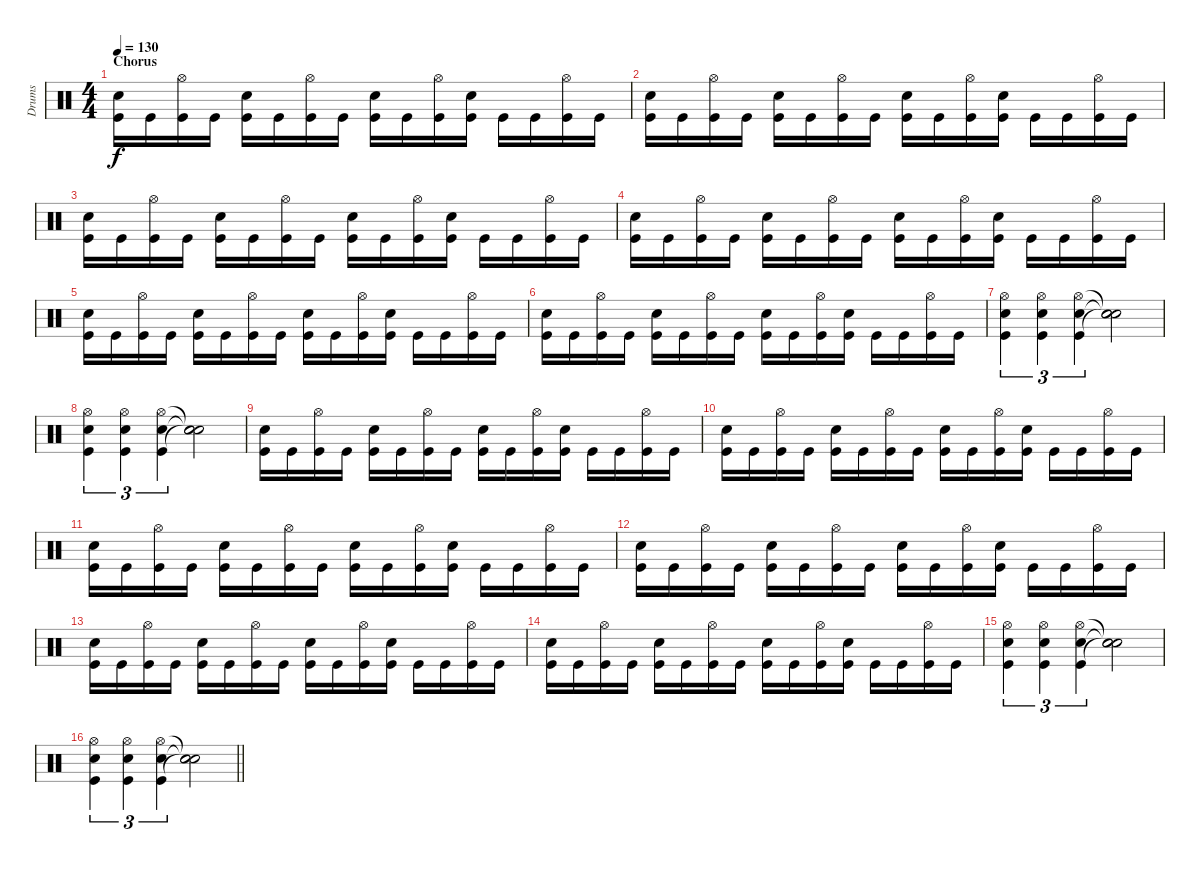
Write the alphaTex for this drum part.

\track ("Drums" "Drums") {instrument percussion}
\staff {score}
\articulation defaults
\ts (4 4)
\section ("" "Chorus")
\tempo 130
\clef neutral
\ks c
("Snare (hit) 2" "Kick (hit)").16{dy f} "Kick (hit)".16 ("Hi-Hat (open)" "Kick (hit)").16 "Kick (hit)".16 ("Snare (hit) 2" "Kick (hit)").16 "Kick (hit)".16 ("Hi-Hat (open)" "Kick (hit)").16 "Kick (hit)".16 ("Snare (hit) 2" "Kick (hit)").16 "Kick (hit)".16 ("Hi-Hat (open)" "Kick (hit)").16 ("Snare (hit) 2" "Kick (hit)").16 "Kick (hit)".16 "Kick (hit)".16 ("Hi-Hat (open)" "Kick (hit)").16 "Kick (hit)".16 |
("Snare (hit) 2" "Kick (hit)").16 "Kick (hit)".16 ("Hi-Hat (open)" "Kick (hit)").16 "Kick (hit)".16 ("Snare (hit) 2" "Kick (hit)").16 "Kick (hit)".16 ("Hi-Hat (open)" "Kick (hit)").16 "Kick (hit)".16 ("Snare (hit) 2" "Kick (hit)").16 "Kick (hit)".16 ("Hi-Hat (open)" "Kick (hit)").16 ("Snare (hit) 2" "Kick (hit)").16 "Kick (hit)".16 "Kick (hit)".16 ("Hi-Hat (open)" "Kick (hit)").16 "Kick (hit)".16 |
("Snare (hit) 2" "Kick (hit)").16 "Kick (hit)".16 ("Hi-Hat (open)" "Kick (hit)").16 "Kick (hit)".16 ("Snare (hit) 2" "Kick (hit)").16 "Kick (hit)".16 ("Hi-Hat (open)" "Kick (hit)").16 "Kick (hit)".16 ("Snare (hit) 2" "Kick (hit)").16 "Kick (hit)".16 ("Hi-Hat (open)" "Kick (hit)").16 ("Snare (hit) 2" "Kick (hit)").16 "Kick (hit)".16 "Kick (hit)".16 ("Hi-Hat (open)" "Kick (hit)").16 "Kick (hit)".16 |
("Snare (hit) 2" "Kick (hit)").16 "Kick (hit)".16 ("Hi-Hat (open)" "Kick (hit)").16 "Kick (hit)".16 ("Snare (hit) 2" "Kick (hit)").16 "Kick (hit)".16 ("Hi-Hat (open)" "Kick (hit)").16 "Kick (hit)".16 ("Snare (hit) 2" "Kick (hit)").16 "Kick (hit)".16 ("Hi-Hat (open)" "Kick (hit)").16 ("Snare (hit) 2" "Kick (hit)").16 "Kick (hit)".16 "Kick (hit)".16 ("Hi-Hat (open)" "Kick (hit)").16 "Kick (hit)".16 |
("Snare (hit) 2" "Kick (hit)").16 "Kick (hit)".16 ("Hi-Hat (open)" "Kick (hit)").16 "Kick (hit)".16 ("Snare (hit) 2" "Kick (hit)").16 "Kick (hit)".16 ("Hi-Hat (open)" "Kick (hit)").16 "Kick (hit)".16 ("Snare (hit) 2" "Kick (hit)").16 "Kick (hit)".16 ("Hi-Hat (open)" "Kick (hit)").16 ("Snare (hit) 2" "Kick (hit)").16 "Kick (hit)".16 "Kick (hit)".16 ("Hi-Hat (open)" "Kick (hit)").16 "Kick (hit)".16 |
("Snare (hit) 2" "Kick (hit)").16 "Kick (hit)".16 ("Hi-Hat (open)" "Kick (hit)").16 "Kick (hit)".16 ("Snare (hit) 2" "Kick (hit)").16 "Kick (hit)".16 ("Hi-Hat (open)" "Kick (hit)").16 "Kick (hit)".16 ("Snare (hit) 2" "Kick (hit)").16 "Kick (hit)".16 ("Hi-Hat (open)" "Kick (hit)").16 ("Snare (hit) 2" "Kick (hit)").16 "Kick (hit)".16 "Kick (hit)".16 ("Hi-Hat (open)" "Kick (hit)").16 "Kick (hit)".16 |
("Hi-Hat (open)" "Snare (hit) 2" "Kick (hit)").4{tu (3 2)} ("Hi-Hat (open)" "Snare (hit) 2" "Kick (hit)").4{tu (3 2)} ("Hi-Hat (open)" "Kick (hit)" "Snare (hit) 2").4{tu (3 2)} ("Snare (hit)"{t} "Snare (hit)"{t} "Snare (hit)"{t}).2 |
("Hi-Hat (open)" "Snare (hit) 2" "Kick (hit)").4{tu (3 2)} ("Hi-Hat (open)" "Snare (hit) 2" "Kick (hit)").4{tu (3 2)} ("Hi-Hat (open)" "Kick (hit)" "Snare (hit) 2").4{tu (3 2)} ("Snare (hit)"{t} "Snare (hit)"{t} "Snare (hit)"{t}).2 |
("Snare (hit) 2" "Kick (hit)").16 "Kick (hit)".16 ("Hi-Hat (open)" "Kick (hit)").16 "Kick (hit)".16 ("Snare (hit) 2" "Kick (hit)").16 "Kick (hit)".16 ("Hi-Hat (open)" "Kick (hit)").16 "Kick (hit)".16 ("Snare (hit) 2" "Kick (hit)").16 "Kick (hit)".16 ("Hi-Hat (open)" "Kick (hit)").16 ("Snare (hit) 2" "Kick (hit)").16 "Kick (hit)".16 "Kick (hit)".16 ("Hi-Hat (open)" "Kick (hit)").16 "Kick (hit)".16 |
("Snare (hit) 2" "Kick (hit)").16 "Kick (hit)".16 ("Hi-Hat (open)" "Kick (hit)").16 "Kick (hit)".16 ("Snare (hit) 2" "Kick (hit)").16 "Kick (hit)".16 ("Hi-Hat (open)" "Kick (hit)").16 "Kick (hit)".16 ("Snare (hit) 2" "Kick (hit)").16 "Kick (hit)".16 ("Hi-Hat (open)" "Kick (hit)").16 ("Snare (hit) 2" "Kick (hit)").16 "Kick (hit)".16 "Kick (hit)".16 ("Hi-Hat (open)" "Kick (hit)").16 "Kick (hit)".16 |
("Snare (hit) 2" "Kick (hit)").16 "Kick (hit)".16 ("Hi-Hat (open)" "Kick (hit)").16 "Kick (hit)".16 ("Snare (hit) 2" "Kick (hit)").16 "Kick (hit)".16 ("Hi-Hat (open)" "Kick (hit)").16 "Kick (hit)".16 ("Snare (hit) 2" "Kick (hit)").16 "Kick (hit)".16 ("Hi-Hat (open)" "Kick (hit)").16 ("Snare (hit) 2" "Kick (hit)").16 "Kick (hit)".16 "Kick (hit)".16 ("Hi-Hat (open)" "Kick (hit)").16 "Kick (hit)".16 |
("Snare (hit) 2" "Kick (hit)").16 "Kick (hit)".16 ("Hi-Hat (open)" "Kick (hit)").16 "Kick (hit)".16 ("Snare (hit) 2" "Kick (hit)").16 "Kick (hit)".16 ("Hi-Hat (open)" "Kick (hit)").16 "Kick (hit)".16 ("Snare (hit) 2" "Kick (hit)").16 "Kick (hit)".16 ("Hi-Hat (open)" "Kick (hit)").16 ("Snare (hit) 2" "Kick (hit)").16 "Kick (hit)".16 "Kick (hit)".16 ("Hi-Hat (open)" "Kick (hit)").16 "Kick (hit)".16 |
("Snare (hit) 2" "Kick (hit)").16 "Kick (hit)".16 ("Hi-Hat (open)" "Kick (hit)").16 "Kick (hit)".16 ("Snare (hit) 2" "Kick (hit)").16 "Kick (hit)".16 ("Hi-Hat (open)" "Kick (hit)").16 "Kick (hit)".16 ("Snare (hit) 2" "Kick (hit)").16 "Kick (hit)".16 ("Hi-Hat (open)" "Kick (hit)").16 ("Snare (hit) 2" "Kick (hit)").16 "Kick (hit)".16 "Kick (hit)".16 ("Hi-Hat (open)" "Kick (hit)").16 "Kick (hit)".16 |
("Snare (hit) 2" "Kick (hit)").16 "Kick (hit)".16 ("Hi-Hat (open)" "Kick (hit)").16 "Kick (hit)".16 ("Snare (hit) 2" "Kick (hit)").16 "Kick (hit)".16 ("Hi-Hat (open)" "Kick (hit)").16 "Kick (hit)".16 ("Snare (hit) 2" "Kick (hit)").16 "Kick (hit)".16 ("Hi-Hat (open)" "Kick (hit)").16 ("Snare (hit) 2" "Kick (hit)").16 "Kick (hit)".16 "Kick (hit)".16 ("Hi-Hat (open)" "Kick (hit)").16 "Kick (hit)".16 |
("Hi-Hat (open)" "Snare (hit) 2" "Kick (hit)").4{tu (3 2)} ("Hi-Hat (open)" "Snare (hit) 2" "Kick (hit)").4{tu (3 2)} ("Hi-Hat (open)" "Kick (hit)" "Snare (hit) 2").4{tu (3 2)} ("Snare (hit)"{t} "Snare (hit)"{t} "Snare (hit)"{t}).2 |
\barLineRight lightlight
("Hi-Hat (open)" "Snare (hit) 2" "Kick (hit)").4{tu (3 2)} ("Hi-Hat (open)" "Snare (hit) 2" "Kick (hit)").4{tu (3 2)} ("Hi-Hat (open)" "Kick (hit)" "Snare (hit) 2").4{tu (3 2)} ("Snare (hit)"{t} "Snare (hit)"{t} "Snare (hit)"{t}).2
